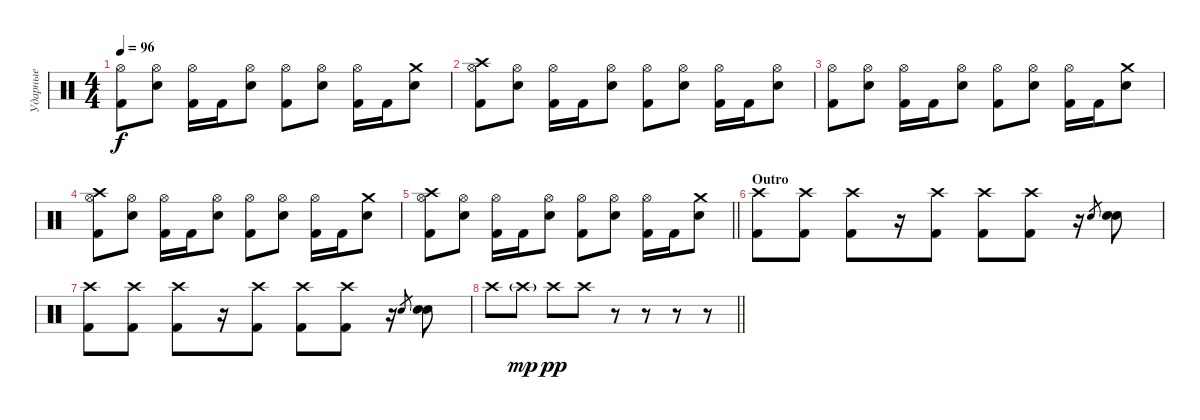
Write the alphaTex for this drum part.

\track ("Ударные" "Ударные") {instrument percussion}
\staff {score}
\articulation defaults
\ts (4 4)
\tempo 96
\clef neutral
\ks c
("Hi-Hat (open)" "Kick (hit) 2").8{dy f} ("Hi-Hat (open)" "Electric Snare (hit)").8 ("Hi-Hat (open)" "Kick (hit) 2").16 "Kick (hit) 2".16 ("Hi-Hat (open)" "Electric Snare (hit)").8 ("Hi-Hat (open)" "Kick (hit) 2").8 ("Hi-Hat (open)" "Electric Snare (hit)").8 ("Hi-Hat (open)" "Kick (hit) 2").16 "Kick (hit) 2".16 ("Crash medium (hit)" "Electric Snare (hit)").8 |
("Hi-Hat (open)" "Crash high (hit)" "Kick (hit) 2").8 ("Hi-Hat (open)" "Electric Snare (hit)").8 ("Hi-Hat (open)" "Kick (hit) 2").16 "Kick (hit) 2".16 ("Hi-Hat (open)" "Electric Snare (hit)").8 ("Hi-Hat (open)" "Kick (hit) 2").8 ("Hi-Hat (open)" "Electric Snare (hit)").8 ("Hi-Hat (open)" "Kick (hit) 2").16 "Kick (hit) 2".16 ("Hi-Hat (open)" "Electric Snare (hit)").8 |
("Hi-Hat (open)" "Kick (hit) 2").8 ("Hi-Hat (open)" "Electric Snare (hit)").8 ("Hi-Hat (open)" "Kick (hit) 2").16 "Kick (hit) 2".16 ("Hi-Hat (open)" "Electric Snare (hit)").8 ("Hi-Hat (open)" "Kick (hit) 2").8 ("Hi-Hat (open)" "Electric Snare (hit)").8 ("Hi-Hat (open)" "Kick (hit) 2").16 "Kick (hit) 2".16 ("Crash medium (hit)" "Electric Snare (hit)").8 |
("Hi-Hat (open)" "Crash high (hit)" "Kick (hit) 2").8 ("Hi-Hat (open)" "Electric Snare (hit)").8 ("Hi-Hat (open)" "Kick (hit) 2").16 "Kick (hit) 2".16 ("Hi-Hat (open)" "Electric Snare (hit)").8 ("Hi-Hat (open)" "Kick (hit) 2").8 ("Hi-Hat (open)" "Electric Snare (hit)").8 ("Hi-Hat (open)" "Kick (hit) 2").16 "Kick (hit) 2".16 ("Crash medium (hit)" "Electric Snare (hit)").8 |
\barLineRight lightlight
("Hi-Hat (open)" "Crash high (hit)" "Kick (hit) 2").8 ("Hi-Hat (open)" "Electric Snare (hit)").8 ("Hi-Hat (open)" "Kick (hit) 2").16 "Kick (hit) 2".16 ("Hi-Hat (open)" "Electric Snare (hit)").8 ("Hi-Hat (open)" "Kick (hit) 2").8 ("Hi-Hat (open)" "Electric Snare (hit)").8 ("Hi-Hat (open)" "Kick (hit) 2").16 "Kick (hit) 2".16 ("Crash medium (hit)" "Electric Snare (hit)").8 |
\section ("" "Outro")
("Crash high (hit)" "Kick (hit) 2").8 ("Crash high (hit)" "Kick (hit) 2").8 ("Crash high (hit)" "Kick (hit) 2").8 r.16 ("Crash high (hit)" "Kick (hit) 2").8 ("Crash high (hit)" "Kick (hit) 2").8 ("Crash high (hit)" "Kick (hit) 2").8 r.16 "Electric Snare (hit)".8{gr} ("Electric Snare (hit)" "Electric Snare (hit)").8 |
("Crash high (hit)" "Kick (hit) 2").8 ("Crash high (hit)" "Kick (hit) 2").8 ("Crash high (hit)" "Kick (hit) 2").8 r.16 ("Crash high (hit)" "Kick (hit) 2").8 ("Crash high (hit)" "Kick (hit) 2").8 ("Crash high (hit)" "Kick (hit) 2").8 r.16 "Electric Snare (hit)".8{gr} ("Electric Snare (hit)" "Electric Snare (hit)").8 |
\barLineRight lightlight "Crash high (hit)".8 "Crash high (hit)"{g}.8{dy mp} "Crash high (hit)".8{dy pp} "Crash high (hit)".8
r.8 r.8 r.8 r.8
